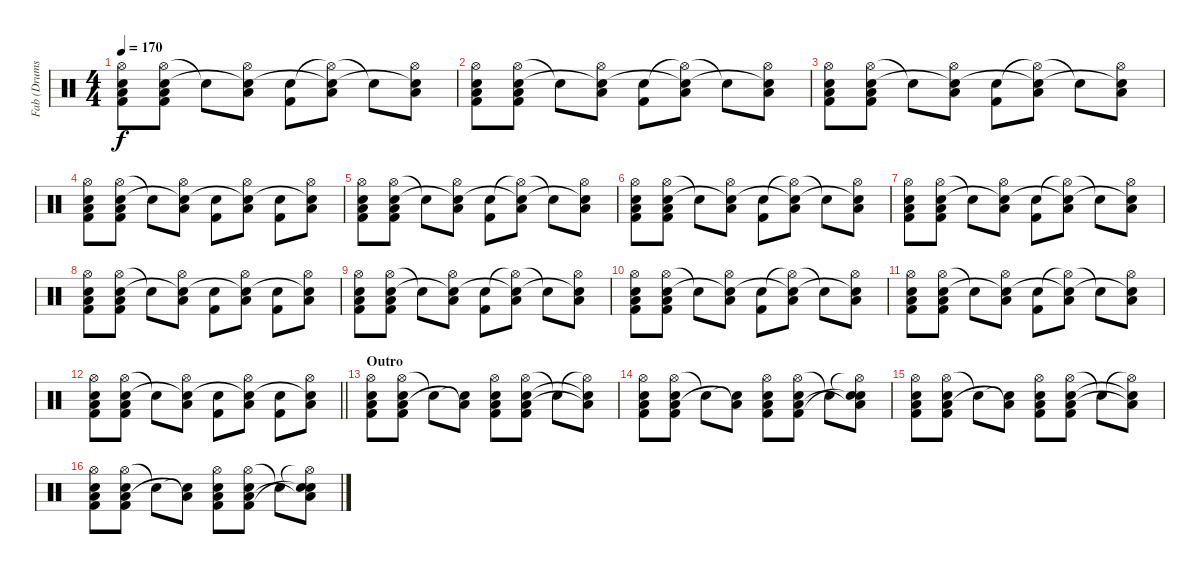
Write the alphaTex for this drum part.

\track ("Fab (Drums)" "Fab (Drums") {instrument percussion}
\staff {score}
\articulation defaults
\ts (4 4)
\tempo 170
\clef neutral
\ks c
("Hi-Hat (open)" "Low Floor Tom (hit)" "Electric Snare (hit)" "Kick (hit) 2").8{dy f} ("Hi-Hat (open)" "Low Floor Tom (hit)" "Electric Snare (hit)" "Kick (hit) 2").8 "Snare (hit)"{t}.8 ("Hi-Hat (open)" "Low Floor Tom (hit)" "Snare (hit)"{t}).8 ("Electric Snare (hit)" "Kick (hit) 2").8 ("Hi-Hat (open)"{t} "Low Floor Tom (hit)" "Snare (hit)"{t}).8 "Snare (hit)"{t}.8 ("Hi-Hat (open)" "Low Floor Tom (hit)" "Snare (hit)"{t}).8 |
("Hi-Hat (open)" "Low Floor Tom (hit)" "Electric Snare (hit)" "Kick (hit) 2").8 ("Hi-Hat (open)" "Low Floor Tom (hit)" "Electric Snare (hit)" "Kick (hit) 2").8 "Snare (hit)"{t}.8 ("Hi-Hat (open)" "Low Floor Tom (hit)" "Snare (hit)"{t}).8 ("Electric Snare (hit)" "Kick (hit) 2").8 ("Hi-Hat (open)"{t} "Low Floor Tom (hit)" "Snare (hit)"{t}).8 "Snare (hit)"{t}.8 ("Hi-Hat (open)" "Low Floor Tom (hit)" "Snare (hit)"{t}).8 |
("Hi-Hat (open)" "Low Floor Tom (hit)" "Electric Snare (hit)" "Kick (hit) 2").8 ("Hi-Hat (open)" "Low Floor Tom (hit)" "Electric Snare (hit)" "Kick (hit) 2").8 "Snare (hit)"{t}.8 ("Hi-Hat (open)" "Low Floor Tom (hit)" "Snare (hit)"{t}).8 ("Electric Snare (hit)" "Kick (hit) 2").8 ("Hi-Hat (open)"{t} "Low Floor Tom (hit)" "Snare (hit)"{t}).8 "Snare (hit)"{t}.8 ("Hi-Hat (open)" "Low Floor Tom (hit)" "Snare (hit)"{t}).8 |
("Hi-Hat (open)" "Low Floor Tom (hit)" "Electric Snare (hit)" "Kick (hit) 2").8 ("Hi-Hat (open)" "Low Floor Tom (hit)" "Electric Snare (hit)" "Kick (hit) 2").8 "Snare (hit)"{t}.8 ("Hi-Hat (open)" "Low Floor Tom (hit)" "Snare (hit)"{t}).8 ("Electric Snare (hit)" "Kick (hit) 2").8 ("Hi-Hat (open)" "Low Floor Tom (hit)" "Snare (hit)"{t}).8 ("Electric Snare (hit)" "Kick (hit) 2").8 ("Hi-Hat (open)" "Low Floor Tom (hit)" "Snare (hit)"{t}).8 |
("Hi-Hat (open)" "Low Floor Tom (hit)" "Electric Snare (hit)" "Kick (hit) 2").8 ("Hi-Hat (open)" "Low Floor Tom (hit)" "Electric Snare (hit)" "Kick (hit) 2").8 "Snare (hit)"{t}.8 ("Hi-Hat (open)" "Low Floor Tom (hit)" "Snare (hit)"{t}).8 ("Electric Snare (hit)" "Kick (hit) 2").8 ("Hi-Hat (open)"{t} "Low Floor Tom (hit)" "Snare (hit)"{t}).8 "Snare (hit)"{t}.8 ("Hi-Hat (open)" "Low Floor Tom (hit)" "Snare (hit)"{t}).8 |
("Hi-Hat (open)" "Low Floor Tom (hit)" "Electric Snare (hit)" "Kick (hit) 2").8 ("Hi-Hat (open)" "Low Floor Tom (hit)" "Electric Snare (hit)" "Kick (hit) 2").8 "Snare (hit)"{t}.8 ("Hi-Hat (open)" "Low Floor Tom (hit)" "Snare (hit)"{t}).8 ("Electric Snare (hit)" "Kick (hit) 2").8 ("Hi-Hat (open)"{t} "Low Floor Tom (hit)" "Snare (hit)"{t}).8 "Snare (hit)"{t}.8 ("Hi-Hat (open)" "Low Floor Tom (hit)" "Snare (hit)"{t}).8 |
("Hi-Hat (open)" "Low Floor Tom (hit)" "Electric Snare (hit)" "Kick (hit) 2").8 ("Hi-Hat (open)" "Low Floor Tom (hit)" "Electric Snare (hit)" "Kick (hit) 2").8 "Snare (hit)"{t}.8 ("Hi-Hat (open)" "Low Floor Tom (hit)" "Snare (hit)"{t}).8 ("Electric Snare (hit)" "Kick (hit) 2").8 ("Hi-Hat (open)"{t} "Low Floor Tom (hit)" "Snare (hit)"{t}).8 "Snare (hit)"{t}.8 ("Hi-Hat (open)" "Low Floor Tom (hit)" "Snare (hit)"{t}).8 |
("Hi-Hat (open)" "Low Floor Tom (hit)" "Electric Snare (hit)" "Kick (hit) 2").8 ("Hi-Hat (open)" "Low Floor Tom (hit)" "Electric Snare (hit)" "Kick (hit) 2").8 "Snare (hit)"{t}.8 ("Hi-Hat (open)" "Low Floor Tom (hit)" "Snare (hit)"{t}).8 ("Electric Snare (hit)" "Kick (hit) 2").8 ("Hi-Hat (open)" "Low Floor Tom (hit)" "Snare (hit)"{t}).8 ("Electric Snare (hit)" "Kick (hit) 2").8 ("Hi-Hat (open)" "Low Floor Tom (hit)" "Snare (hit)"{t}).8 |
("Hi-Hat (open)" "Low Floor Tom (hit)" "Electric Snare (hit)" "Kick (hit) 2").8 ("Hi-Hat (open)" "Low Floor Tom (hit)" "Electric Snare (hit)" "Kick (hit) 2").8 "Snare (hit)"{t}.8 ("Hi-Hat (open)" "Low Floor Tom (hit)" "Snare (hit)"{t}).8 ("Electric Snare (hit)" "Kick (hit) 2").8 ("Hi-Hat (open)"{t} "Low Floor Tom (hit)" "Snare (hit)"{t}).8 "Snare (hit)"{t}.8 ("Hi-Hat (open)" "Low Floor Tom (hit)" "Snare (hit)"{t}).8 |
("Hi-Hat (open)" "Low Floor Tom (hit)" "Electric Snare (hit)" "Kick (hit) 2").8 ("Hi-Hat (open)" "Low Floor Tom (hit)" "Electric Snare (hit)" "Kick (hit) 2").8 "Snare (hit)"{t}.8 ("Hi-Hat (open)" "Low Floor Tom (hit)" "Snare (hit)"{t}).8 ("Electric Snare (hit)" "Kick (hit) 2").8 ("Hi-Hat (open)"{t} "Low Floor Tom (hit)" "Snare (hit)"{t}).8 "Snare (hit)"{t}.8 ("Hi-Hat (open)" "Low Floor Tom (hit)" "Snare (hit)"{t}).8 |
("Hi-Hat (open)" "Low Floor Tom (hit)" "Electric Snare (hit)" "Kick (hit) 2").8 ("Hi-Hat (open)" "Low Floor Tom (hit)" "Electric Snare (hit)" "Kick (hit) 2").8 "Snare (hit)"{t}.8 ("Hi-Hat (open)" "Low Floor Tom (hit)" "Snare (hit)"{t}).8 ("Electric Snare (hit)" "Kick (hit) 2").8 ("Hi-Hat (open)"{t} "Low Floor Tom (hit)" "Snare (hit)"{t}).8 "Snare (hit)"{t}.8 ("Hi-Hat (open)" "Low Floor Tom (hit)" "Snare (hit)"{t}).8 |
\barLineRight lightlight
("Hi-Hat (open)" "Low Floor Tom (hit)" "Electric Snare (hit)" "Kick (hit) 2").8 ("Hi-Hat (open)" "Low Floor Tom (hit)" "Electric Snare (hit)" "Kick (hit) 2").8 "Snare (hit)"{t}.8 ("Hi-Hat (open)" "Low Floor Tom (hit)" "Snare (hit)"{t}).8 ("Electric Snare (hit)" "Kick (hit) 2").8 ("Hi-Hat (open)" "Low Floor Tom (hit)" "Snare (hit)"{t}).8 ("Electric Snare (hit)" "Kick (hit) 2").8 ("Hi-Hat (open)" "Low Floor Tom (hit)" "Snare (hit)"{t}).8 |
\section ("" "Outro")
("Hi-Hat (open)" "Low Floor Tom (hit)" "Electric Snare (hit)" "Kick (hit) 2").8 ("Hi-Hat (open)" "Low Floor Tom (hit)" "Electric Snare (hit)" "Kick (hit) 2").8 "Snare (hit)"{t}.8 ("Low Floor Tom (hit)"{t} "Snare (hit)"{t}).8 ("Hi-Hat (open)" "Low Floor Tom (hit)" "Electric Snare (hit)" "Kick (hit) 2").8 ("Hi-Hat (open)" "Low Floor Tom (hit)" "Electric Snare (hit)" "Kick (hit) 2").8 "Snare (hit)"{t}.8 ("Hi-Hat (open)"{t} "Low Floor Tom (hit)"{t} "Snare (hit)"{t}).8 |
("Hi-Hat (open)" "Low Floor Tom (hit)" "Electric Snare (hit)" "Kick (hit) 2").8 ("Hi-Hat (open)" "Low Floor Tom (hit)" "Electric Snare (hit)" "Kick (hit) 2").8 "Snare (hit)"{t}.8 ("Low Floor Tom (hit)"{t} "Snare (hit)"{t}).8 ("Hi-Hat (open)" "Low Floor Tom (hit)" "Electric Snare (hit)" "Kick (hit) 2").8 ("Hi-Hat (open)" "Low Floor Tom (hit)" "Electric Snare (hit)" "Kick (hit) 2").8 "Snare (hit)"{t}.8 ("Hi-Hat (open)"{t} "Low Floor Tom (hit)"{t} "Electric Snare (hit)" "Snare (hit)"{t}).8 |
("Hi-Hat (open)" "Low Floor Tom (hit)" "Electric Snare (hit)" "Kick (hit) 2").8 ("Hi-Hat (open)" "Low Floor Tom (hit)" "Electric Snare (hit)" "Kick (hit) 2").8 "Snare (hit)"{t}.8 ("Low Floor Tom (hit)"{t} "Snare (hit)"{t}).8 ("Hi-Hat (open)" "Low Floor Tom (hit)" "Electric Snare (hit)" "Kick (hit) 2").8 ("Hi-Hat (open)" "Low Floor Tom (hit)" "Electric Snare (hit)" "Kick (hit) 2").8 "Snare (hit)"{t}.8 ("Hi-Hat (open)"{t} "Low Floor Tom (hit)"{t} "Snare (hit)"{t}).8 |
("Hi-Hat (open)" "Low Floor Tom (hit)" "Electric Snare (hit)" "Kick (hit) 2").8 ("Hi-Hat (open)" "Low Floor Tom (hit)" "Electric Snare (hit)" "Kick (hit) 2").8 "Snare (hit)"{t}.8 ("Low Floor Tom (hit)"{t} "Snare (hit)"{t}).8 ("Hi-Hat (open)" "Low Floor Tom (hit)" "Electric Snare (hit)" "Kick (hit) 2").8 ("Hi-Hat (open)" "Low Floor Tom (hit)" "Electric Snare (hit)" "Kick (hit) 2").8 "Snare (hit)"{t}.8 ("Hi-Hat (open)"{t} "Low Floor Tom (hit)"{t} "Electric Snare (hit)" "Snare (hit)"{t}).8
